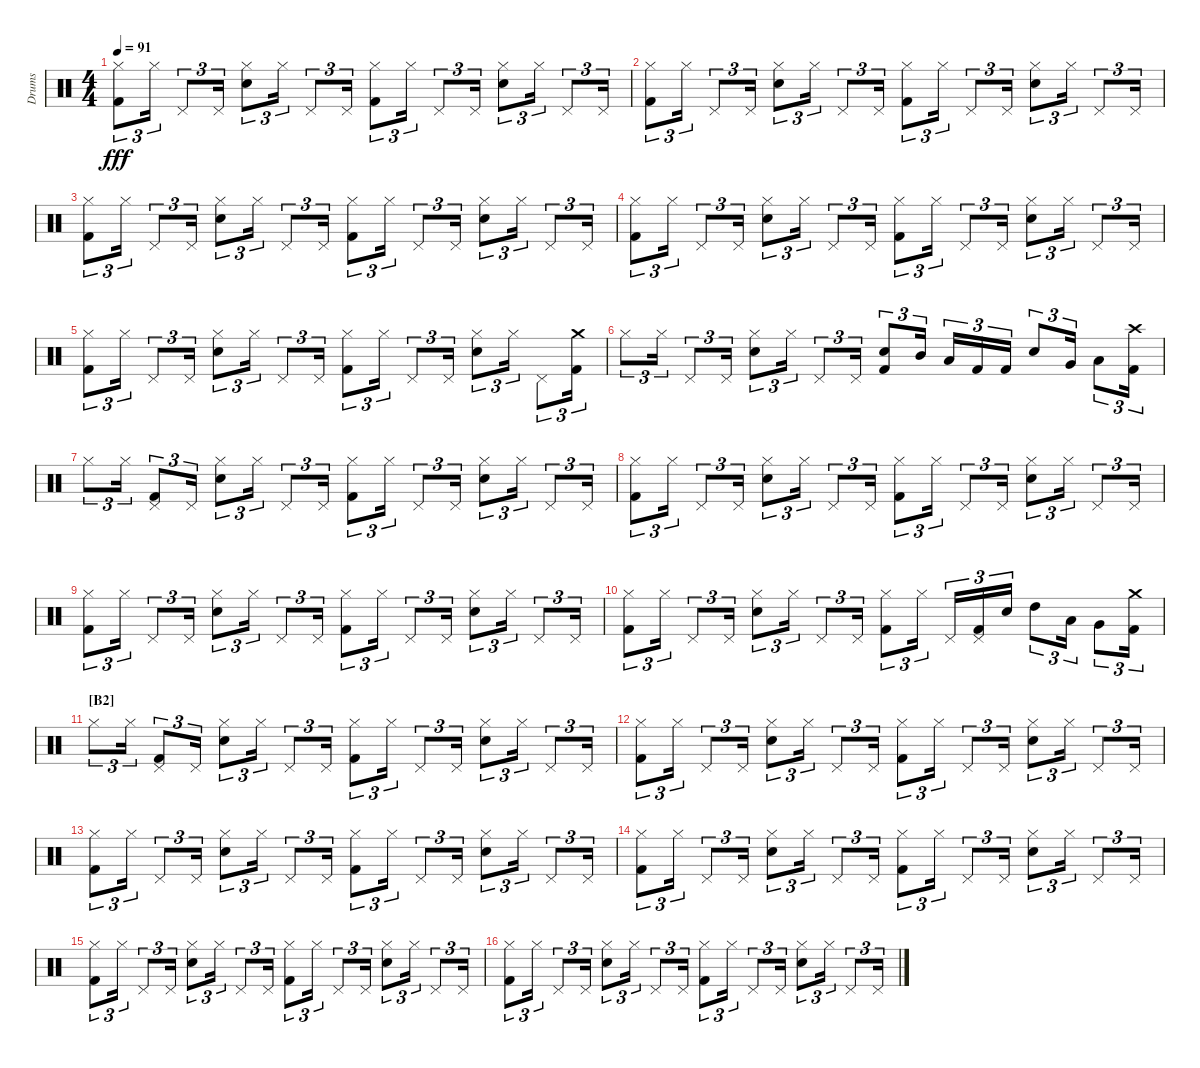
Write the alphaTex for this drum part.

\track ("Drums" "Drums") {instrument percussion}
\staff {score}
\articulation defaults
\ts (4 4)
\tempo 91
\clef neutral
\ks c
("Hi-Hat (closed)" "Kick (hit) 2").8{tu (3 2) dy fff} "Hi-Hat (closed)".16{tu (3 2)} "Pedal Hi-Hat (hit)".8{tu (3 2)} "Pedal Hi-Hat (hit)".16{tu (3 2)} ("Snare (hit) 2" "Hi-Hat (closed)").8{tu (3 2)} "Hi-Hat (closed)".16{tu (3 2)} "Pedal Hi-Hat (hit)".8{tu (3 2)} "Pedal Hi-Hat (hit)".16{tu (3 2)} ("Kick (hit) 2" "Hi-Hat (closed)").8{tu (3 2)} "Hi-Hat (closed)".16{tu (3 2)} "Pedal Hi-Hat (hit)".8{tu (3 2)} "Pedal Hi-Hat (hit)".16{tu (3 2)} ("Snare (hit) 2" "Hi-Hat (closed)").8{tu (3 2)} "Hi-Hat (closed)".16{tu (3 2)} "Pedal Hi-Hat (hit)".8{tu (3 2)} "Pedal Hi-Hat (hit)".16{tu (3 2)} |
("Hi-Hat (closed)" "Kick (hit) 2").8{tu (3 2)} "Hi-Hat (closed)".16{tu (3 2)} "Pedal Hi-Hat (hit)".8{tu (3 2)} "Pedal Hi-Hat (hit)".16{tu (3 2)} ("Snare (hit) 2" "Hi-Hat (closed)").8{tu (3 2)} "Hi-Hat (closed)".16{tu (3 2)} "Pedal Hi-Hat (hit)".8{tu (3 2)} "Pedal Hi-Hat (hit)".16{tu (3 2)} ("Kick (hit) 2" "Hi-Hat (closed)").8{tu (3 2)} "Hi-Hat (closed)".16{tu (3 2)} "Pedal Hi-Hat (hit)".8{tu (3 2)} "Pedal Hi-Hat (hit)".16{tu (3 2)} ("Snare (hit) 2" "Hi-Hat (closed)").8{tu (3 2)} "Hi-Hat (closed)".16{tu (3 2)} "Pedal Hi-Hat (hit)".8{tu (3 2)} "Pedal Hi-Hat (hit)".16{tu (3 2)} |
("Hi-Hat (closed)" "Kick (hit) 2").8{tu (3 2)} "Hi-Hat (closed)".16{tu (3 2)} "Pedal Hi-Hat (hit)".8{tu (3 2)} "Pedal Hi-Hat (hit)".16{tu (3 2)} ("Snare (hit) 2" "Hi-Hat (closed)").8{tu (3 2)} "Hi-Hat (closed)".16{tu (3 2)} "Pedal Hi-Hat (hit)".8{tu (3 2)} "Pedal Hi-Hat (hit)".16{tu (3 2)} ("Kick (hit) 2" "Hi-Hat (closed)").8{tu (3 2)} "Hi-Hat (closed)".16{tu (3 2)} "Pedal Hi-Hat (hit)".8{tu (3 2)} "Pedal Hi-Hat (hit)".16{tu (3 2)} ("Snare (hit) 2" "Hi-Hat (closed)").8{tu (3 2)} "Hi-Hat (closed)".16{tu (3 2)} "Pedal Hi-Hat (hit)".8{tu (3 2)} "Pedal Hi-Hat (hit)".16{tu (3 2)} |
("Hi-Hat (closed)" "Kick (hit) 2").8{tu (3 2)} "Hi-Hat (closed)".16{tu (3 2)} "Pedal Hi-Hat (hit)".8{tu (3 2)} "Pedal Hi-Hat (hit)".16{tu (3 2)} ("Snare (hit) 2" "Hi-Hat (closed)").8{tu (3 2)} "Hi-Hat (closed)".16{tu (3 2)} "Pedal Hi-Hat (hit)".8{tu (3 2)} "Pedal Hi-Hat (hit)".16{tu (3 2)} ("Kick (hit) 2" "Hi-Hat (closed)").8{tu (3 2)} "Hi-Hat (closed)".16{tu (3 2)} "Pedal Hi-Hat (hit)".8{tu (3 2)} "Pedal Hi-Hat (hit)".16{tu (3 2)} ("Snare (hit) 2" "Hi-Hat (closed)").8{tu (3 2)} "Hi-Hat (closed)".16{tu (3 2)} "Pedal Hi-Hat (hit)".8{tu (3 2)} "Pedal Hi-Hat (hit)".16{tu (3 2)} |
("Hi-Hat (closed)" "Kick (hit) 2").8{tu (3 2)} "Hi-Hat (closed)".16{tu (3 2)} "Pedal Hi-Hat (hit)".8{tu (3 2)} "Pedal Hi-Hat (hit)".16{tu (3 2)} ("Snare (hit) 2" "Hi-Hat (closed)").8{tu (3 2)} "Hi-Hat (closed)".16{tu (3 2)} "Pedal Hi-Hat (hit)".8{tu (3 2)} "Pedal Hi-Hat (hit)".16{tu (3 2)} ("Kick (hit) 2" "Hi-Hat (closed)").8{tu (3 2)} "Hi-Hat (closed)".16{tu (3 2)} "Pedal Hi-Hat (hit)".8{tu (3 2)} "Pedal Hi-Hat (hit)".16{tu (3 2)} ("Snare (hit) 2" "Hi-Hat (closed)").8{tu (3 2)} "Hi-Hat (closed)".16{tu (3 2)} "Pedal Hi-Hat (hit)".8{tu (3 2)} ("Crash medium (hit)" "Kick (hit) 2").16{tu (3 2)} |
"Hi-Hat (closed)".8{tu (3 2)} "Hi-Hat (closed)".16{tu (3 2)} "Pedal Hi-Hat (hit)".8{tu (3 2)} "Pedal Hi-Hat (hit)".16{tu (3 2)} ("Snare (hit) 2" "Hi-Hat (closed)").8{tu (3 2)} "Hi-Hat (closed)".16{tu (3 2)} "Pedal Hi-Hat (hit)".8{tu (3 2)} "Pedal Hi-Hat (hit)".16{tu (3 2)} ("Snare (hit) 2" "Kick (hit) 2").8{tu (3 2)} "Mid Tom (hit)".16{tu (3 2)} "Low Tom (hit)".16{tu (3 2)} "Kick (hit) 2".16{tu (3 2)} "Kick (hit) 2".16{tu (3 2)} "Snare (hit) 2".8{tu (3 2)} "Very Low Tom (hit)".16{tu (3 2)} "Low Floor Tom (hit)".8{tu (3 2)} ("Crash high (hit)" "Kick (hit) 2").16{tu (3 2)} |
"Hi-Hat (closed)".8{tu (3 2)} "Hi-Hat (closed)".16{tu (3 2)} ("Kick (hit) 2" "Pedal Hi-Hat (hit)").8{tu (3 2)} "Pedal Hi-Hat (hit)".16{tu (3 2)} ("Snare (hit) 2" "Hi-Hat (closed)").8{tu (3 2)} "Hi-Hat (closed)".16{tu (3 2)} "Pedal Hi-Hat (hit)".8{tu (3 2)} "Pedal Hi-Hat (hit)".16{tu (3 2)} ("Kick (hit) 2" "Hi-Hat (closed)").8{tu (3 2)} "Hi-Hat (closed)".16{tu (3 2)} "Pedal Hi-Hat (hit)".8{tu (3 2)} "Pedal Hi-Hat (hit)".16{tu (3 2)} ("Snare (hit) 2" "Hi-Hat (closed)").8{tu (3 2)} "Hi-Hat (closed)".16{tu (3 2)} "Pedal Hi-Hat (hit)".8{tu (3 2)} "Pedal Hi-Hat (hit)".16{tu (3 2)} |
("Hi-Hat (closed)" "Kick (hit) 2").8{tu (3 2)} "Hi-Hat (closed)".16{tu (3 2)} "Pedal Hi-Hat (hit)".8{tu (3 2)} "Pedal Hi-Hat (hit)".16{tu (3 2)} ("Snare (hit) 2" "Hi-Hat (closed)").8{tu (3 2)} "Hi-Hat (closed)".16{tu (3 2)} "Pedal Hi-Hat (hit)".8{tu (3 2)} "Pedal Hi-Hat (hit)".16{tu (3 2)} ("Kick (hit) 2" "Hi-Hat (closed)").8{tu (3 2)} "Hi-Hat (closed)".16{tu (3 2)} "Pedal Hi-Hat (hit)".8{tu (3 2)} "Pedal Hi-Hat (hit)".16{tu (3 2)} ("Snare (hit) 2" "Hi-Hat (closed)").8{tu (3 2)} "Hi-Hat (closed)".16{tu (3 2)} "Pedal Hi-Hat (hit)".8{tu (3 2)} "Pedal Hi-Hat (hit)".16{tu (3 2)} |
("Hi-Hat (closed)" "Kick (hit) 2").8{tu (3 2)} "Hi-Hat (closed)".16{tu (3 2)} "Pedal Hi-Hat (hit)".8{tu (3 2)} "Pedal Hi-Hat (hit)".16{tu (3 2)} ("Snare (hit) 2" "Hi-Hat (closed)").8{tu (3 2)} "Hi-Hat (closed)".16{tu (3 2)} "Pedal Hi-Hat (hit)".8{tu (3 2)} "Pedal Hi-Hat (hit)".16{tu (3 2)} ("Kick (hit) 2" "Hi-Hat (closed)").8{tu (3 2)} "Hi-Hat (closed)".16{tu (3 2)} "Pedal Hi-Hat (hit)".8{tu (3 2)} "Pedal Hi-Hat (hit)".16{tu (3 2)} ("Snare (hit) 2" "Hi-Hat (closed)").8{tu (3 2)} "Hi-Hat (closed)".16{tu (3 2)} "Pedal Hi-Hat (hit)".8{tu (3 2)} "Pedal Hi-Hat (hit)".16{tu (3 2)} |
("Hi-Hat (closed)" "Kick (hit) 2").8{tu (3 2)} "Hi-Hat (closed)".16{tu (3 2)} "Pedal Hi-Hat (hit)".8{tu (3 2)} "Pedal Hi-Hat (hit)".16{tu (3 2)} ("Snare (hit) 2" "Hi-Hat (closed)").8{tu (3 2)} "Hi-Hat (closed)".16{tu (3 2)} "Pedal Hi-Hat (hit)".8{tu (3 2)} "Pedal Hi-Hat (hit)".16{tu (3 2)} ("Kick (hit) 2" "Hi-Hat (closed)").8{tu (3 2)} "Hi-Hat (closed)".16{tu (3 2)} "Pedal Hi-Hat (hit)".16{tu (3 2)} ("Kick (hit) 2" "Pedal Hi-Hat (hit)").16{tu (3 2)} "Snare (hit) 2".16{tu (3 2)} "High Tom (hit)".8{tu (3 2)} "Low Tom (hit)".16{tu (3 2)} "Very Low Tom (hit)".8{tu (3 2)} ("Crash medium (hit)" "Kick (hit) 2").16{tu (3 2)} |
\section ("" "[B2]")
"Hi-Hat (closed)".8{tu (3 2)} "Hi-Hat (closed)".16{tu (3 2)} ("Kick (hit) 2" "Pedal Hi-Hat (hit)").8{tu (3 2)} "Pedal Hi-Hat (hit)".16{tu (3 2)} ("Snare (hit) 2" "Hi-Hat (closed)").8{tu (3 2)} "Hi-Hat (closed)".16{tu (3 2)} "Pedal Hi-Hat (hit)".8{tu (3 2)} "Pedal Hi-Hat (hit)".16{tu (3 2)} ("Kick (hit) 2" "Hi-Hat (closed)").8{tu (3 2)} "Hi-Hat (closed)".16{tu (3 2)} "Pedal Hi-Hat (hit)".8{tu (3 2)} "Pedal Hi-Hat (hit)".16{tu (3 2)} ("Snare (hit) 2" "Hi-Hat (closed)").8{tu (3 2)} "Hi-Hat (closed)".16{tu (3 2)} "Pedal Hi-Hat (hit)".8{tu (3 2)} "Pedal Hi-Hat (hit)".16{tu (3 2)} |
("Hi-Hat (closed)" "Kick (hit) 2").8{tu (3 2)} "Hi-Hat (closed)".16{tu (3 2)} "Pedal Hi-Hat (hit)".8{tu (3 2)} "Pedal Hi-Hat (hit)".16{tu (3 2)} ("Snare (hit) 2" "Hi-Hat (closed)").8{tu (3 2)} "Hi-Hat (closed)".16{tu (3 2)} "Pedal Hi-Hat (hit)".8{tu (3 2)} "Pedal Hi-Hat (hit)".16{tu (3 2)} ("Kick (hit) 2" "Hi-Hat (closed)").8{tu (3 2)} "Hi-Hat (closed)".16{tu (3 2)} "Pedal Hi-Hat (hit)".8{tu (3 2)} "Pedal Hi-Hat (hit)".16{tu (3 2)} ("Snare (hit) 2" "Hi-Hat (closed)").8{tu (3 2)} "Hi-Hat (closed)".16{tu (3 2)} "Pedal Hi-Hat (hit)".8{tu (3 2)} "Pedal Hi-Hat (hit)".16{tu (3 2)} |
("Hi-Hat (closed)" "Kick (hit) 2").8{tu (3 2)} "Hi-Hat (closed)".16{tu (3 2)} "Pedal Hi-Hat (hit)".8{tu (3 2)} "Pedal Hi-Hat (hit)".16{tu (3 2)} ("Snare (hit) 2" "Hi-Hat (closed)").8{tu (3 2)} "Hi-Hat (closed)".16{tu (3 2)} "Pedal Hi-Hat (hit)".8{tu (3 2)} "Pedal Hi-Hat (hit)".16{tu (3 2)} ("Kick (hit) 2" "Hi-Hat (closed)").8{tu (3 2)} "Hi-Hat (closed)".16{tu (3 2)} "Pedal Hi-Hat (hit)".8{tu (3 2)} "Pedal Hi-Hat (hit)".16{tu (3 2)} ("Snare (hit) 2" "Hi-Hat (closed)").8{tu (3 2)} "Hi-Hat (closed)".16{tu (3 2)} "Pedal Hi-Hat (hit)".8{tu (3 2)} "Pedal Hi-Hat (hit)".16{tu (3 2)} |
("Hi-Hat (closed)" "Kick (hit) 2").8{tu (3 2)} "Hi-Hat (closed)".16{tu (3 2)} "Pedal Hi-Hat (hit)".8{tu (3 2)} "Pedal Hi-Hat (hit)".16{tu (3 2)} ("Snare (hit) 2" "Hi-Hat (closed)").8{tu (3 2)} "Hi-Hat (closed)".16{tu (3 2)} "Pedal Hi-Hat (hit)".8{tu (3 2)} "Pedal Hi-Hat (hit)".16{tu (3 2)} ("Kick (hit) 2" "Hi-Hat (closed)").8{tu (3 2)} "Hi-Hat (closed)".16{tu (3 2)} "Pedal Hi-Hat (hit)".8{tu (3 2)} "Pedal Hi-Hat (hit)".16{tu (3 2)} ("Snare (hit) 2" "Hi-Hat (closed)").8{tu (3 2)} "Hi-Hat (closed)".16{tu (3 2)} "Pedal Hi-Hat (hit)".8{tu (3 2)} "Pedal Hi-Hat (hit)".16{tu (3 2)} |
("Hi-Hat (closed)" "Kick (hit) 2").8{tu (3 2)} "Hi-Hat (closed)".16{tu (3 2)} "Pedal Hi-Hat (hit)".8{tu (3 2)} "Pedal Hi-Hat (hit)".16{tu (3 2)} ("Snare (hit) 2" "Hi-Hat (closed)").8{tu (3 2)} "Hi-Hat (closed)".16{tu (3 2)} "Pedal Hi-Hat (hit)".8{tu (3 2)} "Pedal Hi-Hat (hit)".16{tu (3 2)} ("Kick (hit) 2" "Hi-Hat (closed)").8{tu (3 2)} "Hi-Hat (closed)".16{tu (3 2)} "Pedal Hi-Hat (hit)".8{tu (3 2)} "Pedal Hi-Hat (hit)".16{tu (3 2)} ("Snare (hit) 2" "Hi-Hat (closed)").8{tu (3 2)} "Hi-Hat (closed)".16{tu (3 2)} "Pedal Hi-Hat (hit)".8{tu (3 2)} "Pedal Hi-Hat (hit)".16{tu (3 2)} |
("Hi-Hat (closed)" "Kick (hit) 2").8{tu (3 2)} "Hi-Hat (closed)".16{tu (3 2)} "Pedal Hi-Hat (hit)".8{tu (3 2)} "Pedal Hi-Hat (hit)".16{tu (3 2)} ("Snare (hit) 2" "Hi-Hat (closed)").8{tu (3 2)} "Hi-Hat (closed)".16{tu (3 2)} "Pedal Hi-Hat (hit)".8{tu (3 2)} "Pedal Hi-Hat (hit)".16{tu (3 2)} ("Kick (hit) 2" "Hi-Hat (closed)").8{tu (3 2)} "Hi-Hat (closed)".16{tu (3 2)} "Pedal Hi-Hat (hit)".8{tu (3 2)} "Pedal Hi-Hat (hit)".16{tu (3 2)} ("Snare (hit) 2" "Hi-Hat (closed)").8{tu (3 2)} "Hi-Hat (closed)".16{tu (3 2)} "Pedal Hi-Hat (hit)".8{tu (3 2)} "Pedal Hi-Hat (hit)".16{tu (3 2)}
